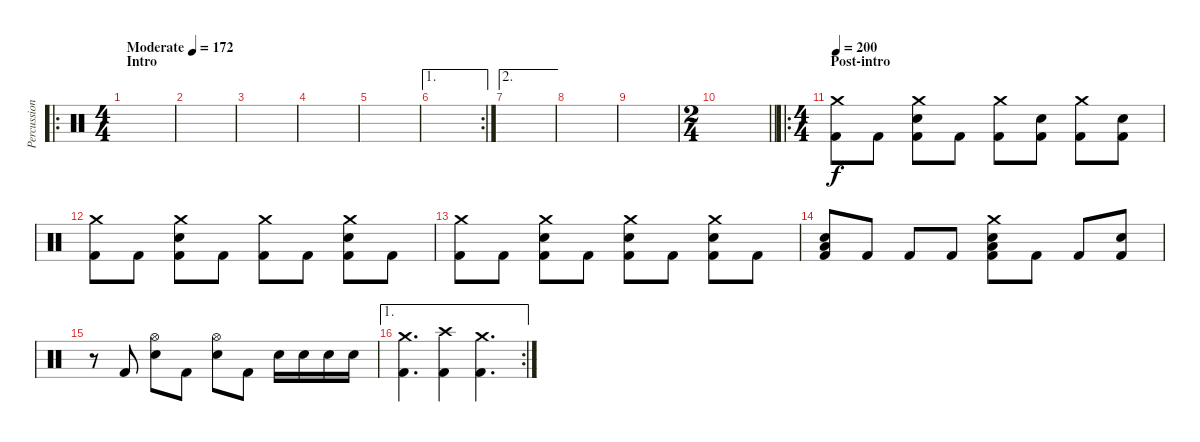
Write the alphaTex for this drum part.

\track ("Percussion" "Percussion") {instrument percussion}
\staff {score}
\articulation defaults
\ro
\ts (4 4)
\section ("" "Intro")
\tempo (172 "Moderate")
\clef neutral
\ks c
|
|
|
|
|
\ae 1
\rc 2
|
\ae 2
|
|
|
\ts (2 4)
\barLineRight lightlight
|
\ro
\ts (4 4)
\section ("" "Post-intro")
\tempo 205
\tempo 200
("Crash medium (hit)" "Kick (hit) 2").8 "Kick (hit) 2".8 ("Crash medium (hit)" "Snare (hit) 2" "Kick (hit) 2").8 "Kick (hit) 2".8 ("Crash medium (hit)" "Kick (hit) 2").8 ("Snare (hit) 2" "Kick (hit) 2").8 ("Crash medium (hit)" "Kick (hit) 2").8 ("Snare (hit) 2" "Kick (hit) 2").8 |
("Crash medium (hit)" "Kick (hit) 2").8 "Kick (hit) 2".8 ("Crash medium (hit)" "Snare (hit) 2" "Kick (hit) 2").8 "Kick (hit) 2".8 ("Crash medium (hit)" "Kick (hit) 2").8 "Kick (hit) 2".8 ("Crash medium (hit)" "Snare (hit) 2" "Kick (hit) 2").8 "Kick (hit) 2".8 |
("Crash medium (hit)" "Kick (hit) 2").8 "Kick (hit) 2".8 ("Crash medium (hit)" "Snare (hit) 2" "Kick (hit) 2").8 "Kick (hit) 2".8 ("Crash medium (hit)" "Snare (hit) 2" "Kick (hit) 2").8 "Kick (hit) 2".8 ("Crash medium (hit)" "Snare (hit) 2" "Kick (hit) 2").8 "Kick (hit) 2".8 |
("Snare (hit) 2" "Low Floor Tom (hit)" "Kick (hit) 2").8 "Kick (hit) 2".8 "Kick (hit) 2".8 "Kick (hit) 2".8 ("Crash medium (hit)" "Snare (hit) 2" "Low Floor Tom (hit)" "Kick (hit) 2").8 "Kick (hit) 2".8 "Kick (hit) 2".8 ("Snare (hit) 2" "Kick (hit) 2").8 |
r.8 "Kick (hit) 2".8 ("Hi-Hat (open)" "Snare (hit) 2").8 "Kick (hit) 2".8 ("Hi-Hat (open)" "Snare (hit) 2").8 "Kick (hit) 2".8 "Snare (hit) 2".16 "Snare (hit) 2".16 "Snare (hit) 2".16 "Snare (hit) 2".16 |
\ae 1
\rc 2
("Crash medium (hit)" "Kick (hit) 2").4{d} ("Crash high (hit)" "Kick (hit) 2").4 ("Crash medium (hit)" "Kick (hit) 2").4{d}
